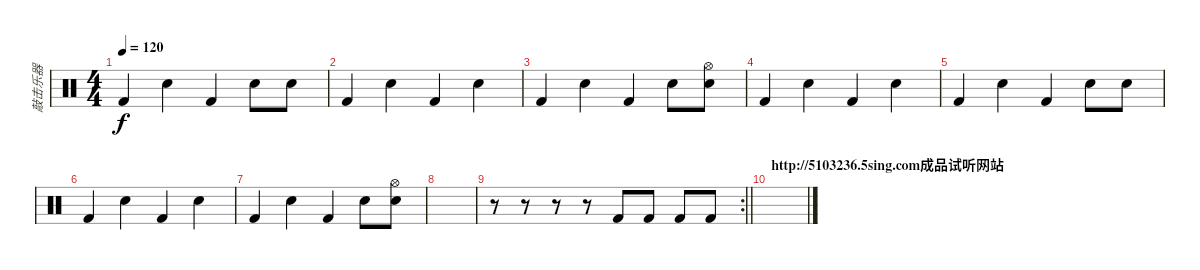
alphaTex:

\track ("敲击乐器" "敲击乐器") {instrument percussion}
\staff {score}
\articulation defaults
\ts (4 4)
\tempo 120
\clef neutral
\ks c "Kick (hit) 2".4{dy f} "Snare (hit) 2".4 "Kick (hit) 2".4 "Snare (hit) 2".8 "Electric Snare (hit)".8
|
"Kick (hit) 2".4 "Snare (hit) 2".4 "Kick (hit) 2".4 "Snare (hit) 2".4 |
"Kick (hit) 2".4 "Snare (hit) 2".4 "Kick (hit) 2".4 "Snare (hit) 2".8 ("Electric Snare (hit)" "Hi-Hat (open)").8 |
"Kick (hit) 2".4 "Snare (hit) 2".4 "Kick (hit) 2".4 "Snare (hit) 2".4 |
"Kick (hit) 2".4 "Snare (hit) 2".4 "Kick (hit) 2".4 "Snare (hit) 2".8 "Electric Snare (hit)".8 |
"Kick (hit) 2".4 "Snare (hit) 2".4 "Kick (hit) 2".4 "Snare (hit) 2".4 |
"Kick (hit) 2".4 "Snare (hit) 2".4 "Kick (hit) 2".4 "Snare (hit) 2".8 ("Snare (hit) 2" "Hi-Hat (open)").8 |
|
\rc 2
\barLineRight lightlight
r.8 r.8 r.8 r.8 "Kick (hit) 2".8 "Kick (hit) 2".8 "Kick (hit) 2".8 "Kick (hit) 2".8 |
\section ("" "http://5103236.5sing.com成品试听网站")
